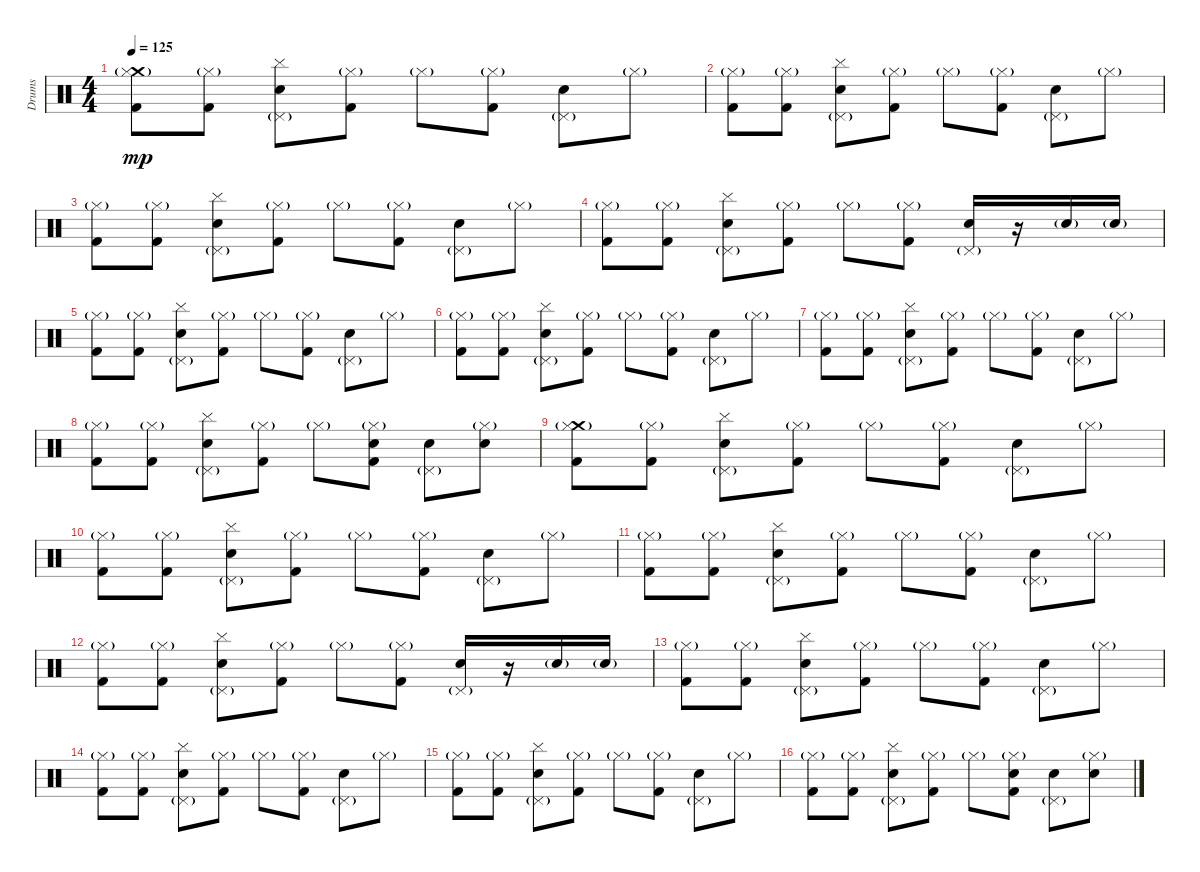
\track ("Drums" "Drums") {instrument percussion}
\staff {score}
\articulation defaults
\ts (4 4)
\tempo 125
\clef neutral
\ks c
("Crash medium (hit)" "Hi-Hat (closed)"{g} "Kick (hit) 2").8{dy mp} ("Hi-Hat (closed)"{g} "Kick (hit) 2").8 ("Electric Snare (hit)" "Pedal Hi-Hat (hit)"{g} "Cymbal (hit)").8 ("Hi-Hat (closed)"{g} "Kick (hit) 2").8 "Hi-Hat (closed)"{g}.8 ("Hi-Hat (closed)"{g} "Kick (hit) 2").8 ("Electric Snare (hit)" "Pedal Hi-Hat (hit)"{g}).8 "Hi-Hat (closed)"{g}.8 |
("Hi-Hat (closed)"{g} "Kick (hit) 2").8 ("Hi-Hat (closed)"{g} "Kick (hit) 2").8 ("Electric Snare (hit)" "Pedal Hi-Hat (hit)"{g} "Cymbal (hit)").8 ("Hi-Hat (closed)"{g} "Kick (hit) 2").8 "Hi-Hat (closed)"{g}.8 ("Hi-Hat (closed)"{g} "Kick (hit) 2").8 ("Electric Snare (hit)" "Pedal Hi-Hat (hit)"{g}).8 "Hi-Hat (closed)"{g}.8 |
("Hi-Hat (closed)"{g} "Kick (hit) 2").8 ("Hi-Hat (closed)"{g} "Kick (hit) 2").8 ("Electric Snare (hit)" "Pedal Hi-Hat (hit)"{g} "Cymbal (hit)").8 ("Hi-Hat (closed)"{g} "Kick (hit) 2").8 "Hi-Hat (closed)"{g}.8 ("Hi-Hat (closed)"{g} "Kick (hit) 2").8 ("Electric Snare (hit)" "Pedal Hi-Hat (hit)"{g}).8 "Hi-Hat (closed)"{g}.8 |
("Hi-Hat (closed)"{g} "Kick (hit) 2").8 ("Hi-Hat (closed)"{g} "Kick (hit) 2").8 ("Electric Snare (hit)" "Pedal Hi-Hat (hit)"{g} "Cymbal (hit)").8 ("Hi-Hat (closed)"{g} "Kick (hit) 2").8 "Hi-Hat (closed)"{g}.8 ("Hi-Hat (closed)"{g} "Kick (hit) 2").8 ("Electric Snare (hit)" "Pedal Hi-Hat (hit)"{g}).16 r.16 "Electric Snare (hit)"{g}.16 "Electric Snare (hit)"{g}.16 |
("Hi-Hat (closed)"{g} "Kick (hit) 2").8 ("Hi-Hat (closed)"{g} "Kick (hit) 2").8 ("Electric Snare (hit)" "Pedal Hi-Hat (hit)"{g} "Cymbal (hit)").8 ("Hi-Hat (closed)"{g} "Kick (hit) 2").8 "Hi-Hat (closed)"{g}.8 ("Hi-Hat (closed)"{g} "Kick (hit) 2").8 ("Electric Snare (hit)" "Pedal Hi-Hat (hit)"{g}).8 "Hi-Hat (closed)"{g}.8 |
("Hi-Hat (closed)"{g} "Kick (hit) 2").8 ("Hi-Hat (closed)"{g} "Kick (hit) 2").8 ("Electric Snare (hit)" "Pedal Hi-Hat (hit)"{g} "Cymbal (hit)").8 ("Hi-Hat (closed)"{g} "Kick (hit) 2").8 "Hi-Hat (closed)"{g}.8 ("Hi-Hat (closed)"{g} "Kick (hit) 2").8 ("Electric Snare (hit)" "Pedal Hi-Hat (hit)"{g}).8 "Hi-Hat (closed)"{g}.8 |
("Hi-Hat (closed)"{g} "Kick (hit) 2").8 ("Hi-Hat (closed)"{g} "Kick (hit) 2").8 ("Electric Snare (hit)" "Pedal Hi-Hat (hit)"{g} "Cymbal (hit)").8 ("Hi-Hat (closed)"{g} "Kick (hit) 2").8 "Hi-Hat (closed)"{g}.8 ("Hi-Hat (closed)"{g} "Kick (hit) 2").8 ("Electric Snare (hit)" "Pedal Hi-Hat (hit)"{g}).8 "Hi-Hat (closed)"{g}.8 |
("Hi-Hat (closed)"{g} "Kick (hit) 2").8 ("Hi-Hat (closed)"{g} "Kick (hit) 2").8 ("Electric Snare (hit)" "Pedal Hi-Hat (hit)"{g} "Cymbal (hit)").8 ("Hi-Hat (closed)"{g} "Kick (hit) 2").8 "Hi-Hat (closed)"{g}.8 ("Electric Snare (hit)" "Hi-Hat (closed)"{g} "Kick (hit) 2").8 ("Electric Snare (hit)" "Pedal Hi-Hat (hit)"{g}).8 ("Electric Snare (hit)" "Hi-Hat (closed)"{g}).8 |
("Crash medium (hit)" "Hi-Hat (closed)"{g} "Kick (hit) 2").8 ("Hi-Hat (closed)"{g} "Kick (hit) 2").8 ("Electric Snare (hit)" "Pedal Hi-Hat (hit)"{g} "Cymbal (hit)").8 ("Hi-Hat (closed)"{g} "Kick (hit) 2").8 "Hi-Hat (closed)"{g}.8 ("Hi-Hat (closed)"{g} "Kick (hit) 2").8 ("Electric Snare (hit)" "Pedal Hi-Hat (hit)"{g}).8 "Hi-Hat (closed)"{g}.8 |
("Hi-Hat (closed)"{g} "Kick (hit) 2").8 ("Hi-Hat (closed)"{g} "Kick (hit) 2").8 ("Electric Snare (hit)" "Pedal Hi-Hat (hit)"{g} "Cymbal (hit)").8 ("Hi-Hat (closed)"{g} "Kick (hit) 2").8 "Hi-Hat (closed)"{g}.8 ("Hi-Hat (closed)"{g} "Kick (hit) 2").8 ("Electric Snare (hit)" "Pedal Hi-Hat (hit)"{g}).8 "Hi-Hat (closed)"{g}.8 |
("Hi-Hat (closed)"{g} "Kick (hit) 2").8 ("Hi-Hat (closed)"{g} "Kick (hit) 2").8 ("Electric Snare (hit)" "Pedal Hi-Hat (hit)"{g} "Cymbal (hit)").8 ("Hi-Hat (closed)"{g} "Kick (hit) 2").8 "Hi-Hat (closed)"{g}.8 ("Hi-Hat (closed)"{g} "Kick (hit) 2").8 ("Electric Snare (hit)" "Pedal Hi-Hat (hit)"{g}).8 "Hi-Hat (closed)"{g}.8 |
("Hi-Hat (closed)"{g} "Kick (hit) 2").8 ("Hi-Hat (closed)"{g} "Kick (hit) 2").8 ("Electric Snare (hit)" "Pedal Hi-Hat (hit)"{g} "Cymbal (hit)").8 ("Hi-Hat (closed)"{g} "Kick (hit) 2").8 "Hi-Hat (closed)"{g}.8 ("Hi-Hat (closed)"{g} "Kick (hit) 2").8 ("Electric Snare (hit)" "Pedal Hi-Hat (hit)"{g}).16 r.16 "Electric Snare (hit)"{g}.16 "Electric Snare (hit)"{g}.16 |
("Hi-Hat (closed)"{g} "Kick (hit) 2").8 ("Hi-Hat (closed)"{g} "Kick (hit) 2").8 ("Electric Snare (hit)" "Pedal Hi-Hat (hit)"{g} "Cymbal (hit)").8 ("Hi-Hat (closed)"{g} "Kick (hit) 2").8 "Hi-Hat (closed)"{g}.8 ("Hi-Hat (closed)"{g} "Kick (hit) 2").8 ("Electric Snare (hit)" "Pedal Hi-Hat (hit)"{g}).8 "Hi-Hat (closed)"{g}.8 |
("Hi-Hat (closed)"{g} "Kick (hit) 2").8 ("Hi-Hat (closed)"{g} "Kick (hit) 2").8 ("Electric Snare (hit)" "Pedal Hi-Hat (hit)"{g} "Cymbal (hit)").8 ("Hi-Hat (closed)"{g} "Kick (hit) 2").8 "Hi-Hat (closed)"{g}.8 ("Hi-Hat (closed)"{g} "Kick (hit) 2").8 ("Electric Snare (hit)" "Pedal Hi-Hat (hit)"{g}).8 "Hi-Hat (closed)"{g}.8 |
("Hi-Hat (closed)"{g} "Kick (hit) 2").8 ("Hi-Hat (closed)"{g} "Kick (hit) 2").8 ("Electric Snare (hit)" "Pedal Hi-Hat (hit)"{g} "Cymbal (hit)").8 ("Hi-Hat (closed)"{g} "Kick (hit) 2").8 "Hi-Hat (closed)"{g}.8 ("Hi-Hat (closed)"{g} "Kick (hit) 2").8 ("Electric Snare (hit)" "Pedal Hi-Hat (hit)"{g}).8 "Hi-Hat (closed)"{g}.8 |
("Hi-Hat (closed)"{g} "Kick (hit) 2").8 ("Hi-Hat (closed)"{g} "Kick (hit) 2").8 ("Electric Snare (hit)" "Pedal Hi-Hat (hit)"{g} "Cymbal (hit)").8 ("Hi-Hat (closed)"{g} "Kick (hit) 2").8 "Hi-Hat (closed)"{g}.8 ("Electric Snare (hit)" "Hi-Hat (closed)"{g} "Kick (hit) 2").8 ("Electric Snare (hit)" "Pedal Hi-Hat (hit)"{g}).8 ("Electric Snare (hit)" "Hi-Hat (closed)"{g}).8
